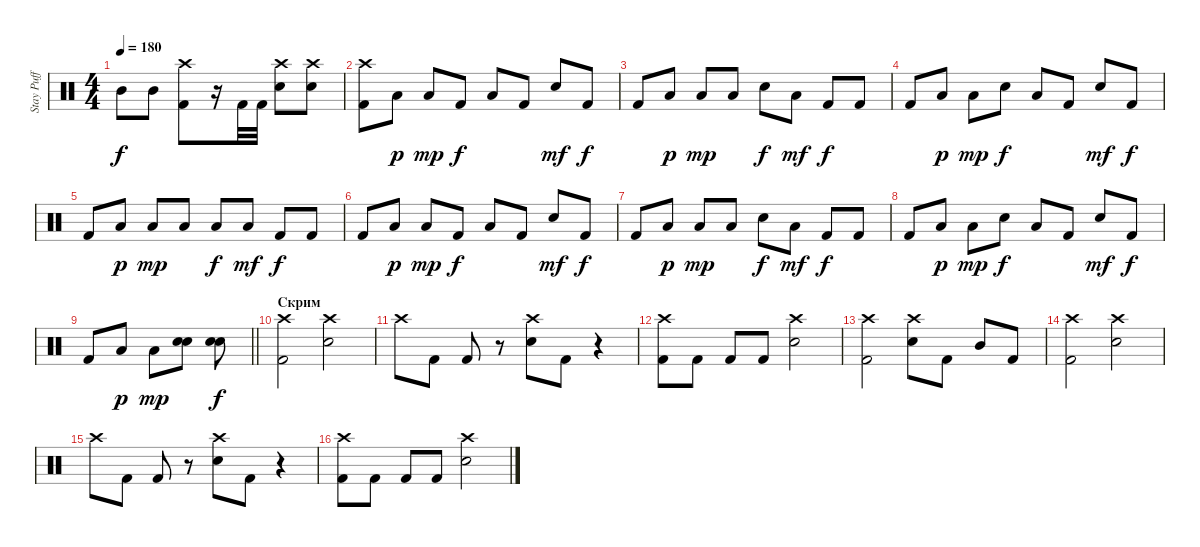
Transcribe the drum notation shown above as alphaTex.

\track ("Stay Puff" "Stay Puff") {instrument percussion}
\staff {score}
\articulation defaults
\ts (4 4)
\tempo 180
\clef neutral
\ks c "Mid Tom (hit)".8{dy f} "Mid Tom (hit)".8
("Crash high (hit)" "Kick (hit) 2").8 r.16 "Kick (hit) 2".32 "Kick (hit) 2".32 ("Crash high (hit)" "Snare (hit) 2").8 ("Crash high (hit)" "Snare (hit) 2").8 |
("Crash high (hit)" "Kick (hit) 2").8{volume 13} "Low Tom (hit)".8{dy p} "Low Tom (hit)".8{dy mp} "Kick (hit) 2".8{dy f} "Low Tom (hit)".8 "Kick (hit) 2".8 "Snare (hit) 2".8{dy mf} "Kick (hit) 2".8{dy f} |
"Kick (hit) 2".8 "Low Tom (hit)".8{dy p} "Low Tom (hit)".8{dy mp} "Low Tom (hit)".8 "Snare (hit) 2".8{dy f} "Low Tom (hit)".8{dy mf} "Kick (hit) 2".8{dy f} "Kick (hit) 2".8 |
"Kick (hit) 2".8{volume 13} "Low Tom (hit)".8{dy p} "Low Tom (hit)".8{dy mp} "Snare (hit) 2".8{dy f} "Low Tom (hit)".8 "Kick (hit) 2".8 "Snare (hit) 2".8{dy mf} "Kick (hit) 2".8{dy f} |
"Kick (hit) 2".8 "Low Tom (hit)".8{dy p} "Low Tom (hit)".8{dy mp} "Low Tom (hit)".8 "Low Tom (hit)".8{dy f} "Low Tom (hit)".8{dy mf} "Kick (hit) 2".8{dy f} "Kick (hit) 2".8 |
"Kick (hit) 2".8{volume 13} "Low Tom (hit)".8{dy p} "Low Tom (hit)".8{dy mp} "Kick (hit) 2".8{dy f} "Low Tom (hit)".8 "Kick (hit) 2".8 "Snare (hit) 2".8{dy mf} "Kick (hit) 2".8{dy f} |
"Kick (hit) 2".8 "Low Tom (hit)".8{dy p} "Low Tom (hit)".8{dy mp} "Low Tom (hit)".8 "Snare (hit) 2".8{dy f} "Low Tom (hit)".8{dy mf} "Kick (hit) 2".8{dy f} "Kick (hit) 2".8 |
"Kick (hit) 2".8{volume 13} "Low Tom (hit)".8{dy p} "Low Tom (hit)".8{dy mp} "Snare (hit) 2".8{dy f} "Low Tom (hit)".8 "Kick (hit) 2".8 "Snare (hit) 2".8{dy mf} "Kick (hit) 2".8{dy f} |
\barLineRight lightlight "Kick (hit) 2".8 "Low Tom (hit)".8{dy p} "Low Tom (hit)".8{dy mp}
("Snare (hit) 2" "Snare (hit) 2").8 ("Snare (hit) 2" "Snare (hit) 2").8{dy f} |
\section ("" "Скрим")
("Crash high (hit)" "Kick (hit) 2").2{volume 13} ("Crash high (hit)" "Snare (hit) 2").2 |
"Crash high (hit)".8 "Kick (hit) 2".8 "Kick (hit) 2".8 r.8 ("Crash high (hit)" "Snare (hit) 2").8 "Kick (hit) 2".8 r.4 |
("Crash high (hit)" "Kick (hit) 2").8 "Kick (hit) 2".8 "Kick (hit) 2".8 "Kick (hit) 2".8 ("Crash high (hit)" "Snare (hit) 2").2 |
("Crash high (hit)" "Kick (hit) 2").2 ("Crash high (hit)" "Snare (hit) 2").8 "Kick (hit) 2".8 "Mid Tom (hit)".8 "Kick (hit) 2".8 |
("Crash high (hit)" "Kick (hit) 2").2 ("Crash high (hit)" "Snare (hit) 2").2 |
"Crash high (hit)".8 "Kick (hit) 2".8 "Kick (hit) 2".8 r.8 ("Crash high (hit)" "Snare (hit) 2").8 "Kick (hit) 2".8 r.4 |
("Crash high (hit)" "Kick (hit) 2").8 "Kick (hit) 2".8 "Kick (hit) 2".8 "Kick (hit) 2".8 ("Crash high (hit)" "Snare (hit) 2").2
